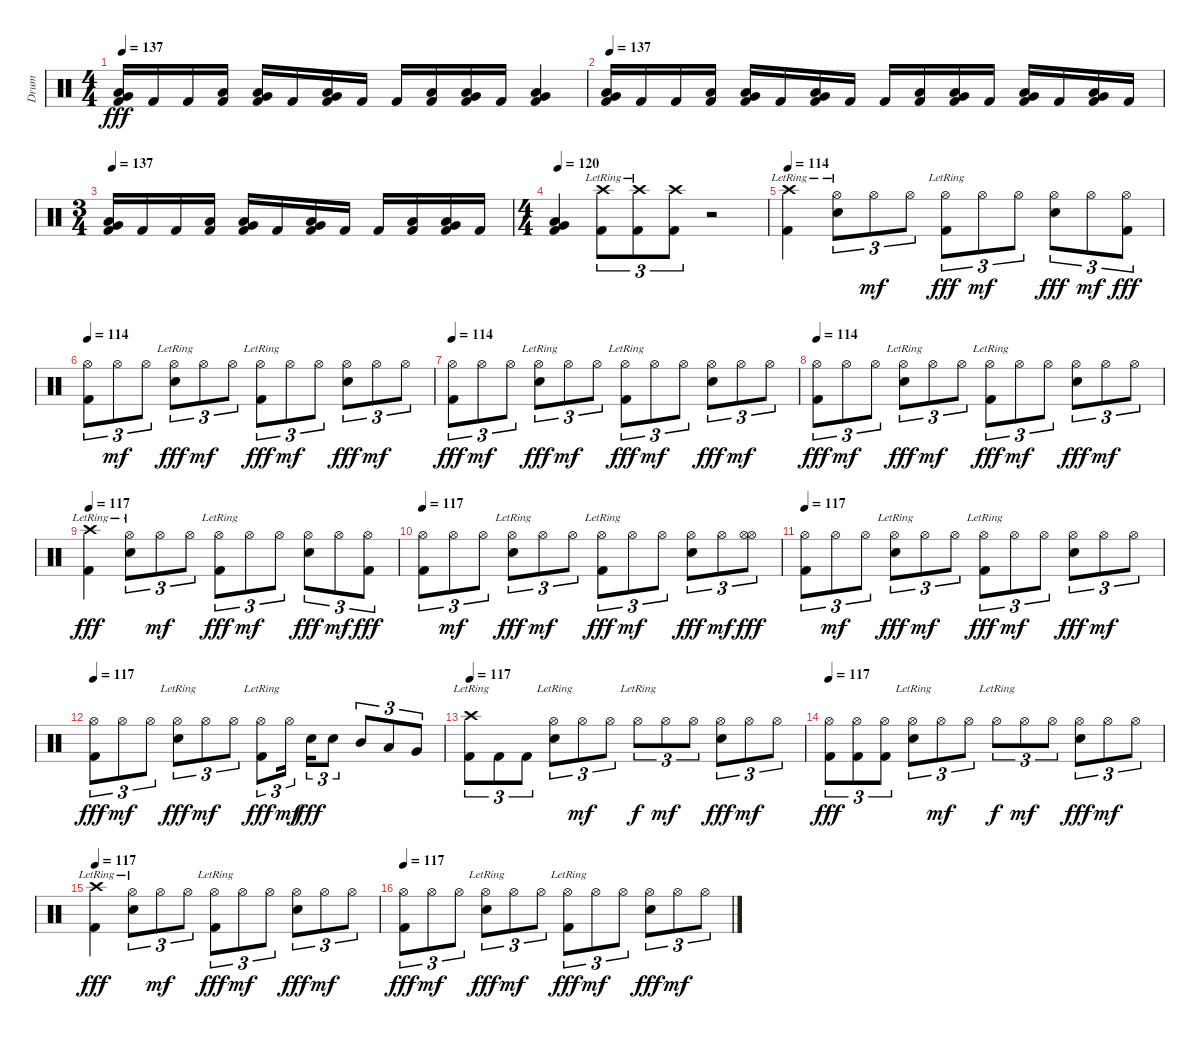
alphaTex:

\track ("Drum" "Drum") {instrument percussion}
\staff {score}
\articulation defaults
\ts (4 4)
\tempo 137
\clef neutral
\ks c
("Very Low Tom (hit)" "Low Tom (hit)" "Kick (hit) 2").16{dy fff} "Kick (hit) 2".16 "Kick (hit) 2".16 ("Low Tom (hit)" "Kick (hit) 2").16 ("Very Low Tom (hit)" "Low Tom (hit)" "Kick (hit) 2").16 "Kick (hit) 2".16 ("Very Low Tom (hit)" "Low Tom (hit)" "Kick (hit) 2").16 "Kick (hit) 2".16 "Kick (hit) 2".16 ("Low Tom (hit)" "Kick (hit) 2").16 ("Very Low Tom (hit)" "Low Tom (hit)" "Kick (hit) 2").16 "Kick (hit) 2".16 ("Very Low Tom (hit)" "Low Tom (hit)" "Kick (hit) 2").4 |
\tempo 137
("Very Low Tom (hit)" "Low Tom (hit)" "Kick (hit) 2").16 "Kick (hit) 2".16 "Kick (hit) 2".16 ("Low Tom (hit)" "Kick (hit) 2").16 ("Very Low Tom (hit)" "Low Tom (hit)" "Kick (hit) 2").16 "Kick (hit) 2".16 ("Very Low Tom (hit)" "Low Tom (hit)" "Kick (hit) 2").16 "Kick (hit) 2".16 "Kick (hit) 2".16 ("Low Tom (hit)" "Kick (hit) 2").16 ("Very Low Tom (hit)" "Low Tom (hit)" "Kick (hit) 2").16 "Kick (hit) 2".16 ("Very Low Tom (hit)" "Low Tom (hit)" "Kick (hit) 2").16 "Kick (hit) 2".16 ("Very Low Tom (hit)" "Low Tom (hit)" "Kick (hit) 2").16 "Kick (hit) 2".16 |
\ts (3 4)
\tempo 137
("Very Low Tom (hit)" "Low Tom (hit)" "Kick (hit) 2").16 "Kick (hit) 2".16 "Kick (hit) 2".16 ("Low Tom (hit)" "Kick (hit) 2").16 ("Very Low Tom (hit)" "Low Tom (hit)" "Kick (hit) 2").16 "Kick (hit) 2".16 ("Very Low Tom (hit)" "Low Tom (hit)" "Kick (hit) 2").16 "Kick (hit) 2".16 "Kick (hit) 2".16 ("Low Tom (hit)" "Kick (hit) 2").16 ("Very Low Tom (hit)" "Low Tom (hit)" "Kick (hit) 2").16 "Kick (hit) 2".16 |
\ts (4 4)
\tempo 120
("Very Low Tom (hit)" "Low Tom (hit)" "Kick (hit) 2").4 ("Crash high (hit)"{lr} "Kick (hit) 2").8{tu (3 2)} ("Crash high (hit)"{lr} "Kick (hit) 2").8{tu (3 2)} ("Crash high (hit)" "Kick (hit) 2").8{tu (3 2)} r.2 |
\tempo 114
("Crash high (hit)"{lr} "Kick (hit) 2").4 ("Hi-Hat (open)"{lr} "Electric Snare (hit)").8{tu (3 2)} "Hi-Hat (open)".8{tu (3 2) dy mf} "Hi-Hat (open)".8{tu (3 2)} ("Hi-Hat (open)"{lr} "Kick (hit) 2").8{tu (3 2) dy fff} "Hi-Hat (open)".8{tu (3 2) dy mf} "Hi-Hat (open)".8{tu (3 2)} ("Hi-Hat (open)" "Electric Snare (hit)").8{tu (3 2) dy fff} "Hi-Hat (open)".8{tu (3 2) dy mf} ("Hi-Hat (open)" "Kick (hit) 2").8{tu (3 2) dy fff} |
\tempo 114
("Hi-Hat (open)" "Kick (hit) 2").8{tu (3 2)} "Hi-Hat (open)".8{tu (3 2) dy mf} "Hi-Hat (open)".8{tu (3 2)} ("Hi-Hat (open)"{lr} "Electric Snare (hit)").8{tu (3 2) dy fff} "Hi-Hat (open)".8{tu (3 2) dy mf} "Hi-Hat (open)".8{tu (3 2)} ("Hi-Hat (open)"{lr} "Kick (hit) 2").8{tu (3 2) dy fff} "Hi-Hat (open)".8{tu (3 2) dy mf} "Hi-Hat (open)".8{tu (3 2)} ("Hi-Hat (open)" "Electric Snare (hit)").8{tu (3 2) dy fff} "Hi-Hat (open)".8{tu (3 2) dy mf} "Hi-Hat (open)".8{tu (3 2)} |
\tempo 114
("Hi-Hat (open)" "Kick (hit) 2").8{tu (3 2) dy fff} "Hi-Hat (open)".8{tu (3 2) dy mf} "Hi-Hat (open)".8{tu (3 2)} ("Hi-Hat (open)"{lr} "Electric Snare (hit)").8{tu (3 2) dy fff} "Hi-Hat (open)".8{tu (3 2) dy mf} "Hi-Hat (open)".8{tu (3 2)} ("Hi-Hat (open)"{lr} "Kick (hit) 2").8{tu (3 2) dy fff} "Hi-Hat (open)".8{tu (3 2) dy mf} "Hi-Hat (open)".8{tu (3 2)} ("Hi-Hat (open)" "Electric Snare (hit)").8{tu (3 2) dy fff} "Hi-Hat (open)".8{tu (3 2) dy mf} "Hi-Hat (open)".8{tu (3 2)} |
\tempo 114
("Hi-Hat (open)" "Kick (hit) 2").8{tu (3 2) dy fff} "Hi-Hat (open)".8{tu (3 2) dy mf} "Hi-Hat (open)".8{tu (3 2)} ("Hi-Hat (open)"{lr} "Electric Snare (hit)").8{tu (3 2) dy fff} "Hi-Hat (open)".8{tu (3 2) dy mf} "Hi-Hat (open)".8{tu (3 2)} ("Hi-Hat (open)"{lr} "Kick (hit) 2").8{tu (3 2) dy fff} "Hi-Hat (open)".8{tu (3 2) dy mf} "Hi-Hat (open)".8{tu (3 2)} ("Hi-Hat (open)" "Electric Snare (hit)").8{tu (3 2) dy fff} "Hi-Hat (open)".8{tu (3 2) dy mf} "Hi-Hat (open)".8{tu (3 2)} |
\tempo 117
("Crash high (hit)"{lr} "Kick (hit) 2").4{dy fff} ("Hi-Hat (open)"{lr} "Electric Snare (hit)").8{tu (3 2)} "Hi-Hat (open)".8{tu (3 2) dy mf} "Hi-Hat (open)".8{tu (3 2)} ("Hi-Hat (open)"{lr} "Kick (hit) 2").8{tu (3 2) dy fff} "Hi-Hat (open)".8{tu (3 2) dy mf} "Hi-Hat (open)".8{tu (3 2)} ("Hi-Hat (open)" "Electric Snare (hit)").8{tu (3 2) dy fff} "Hi-Hat (open)".8{tu (3 2) dy mf} ("Hi-Hat (open)" "Kick (hit) 2").8{tu (3 2) dy fff} |
\tempo 117
("Hi-Hat (open)" "Kick (hit) 2").8{tu (3 2)} "Hi-Hat (open)".8{tu (3 2) dy mf} "Hi-Hat (open)".8{tu (3 2)} ("Hi-Hat (open)"{lr} "Electric Snare (hit)").8{tu (3 2) dy fff} "Hi-Hat (open)".8{tu (3 2) dy mf} "Hi-Hat (open)".8{tu (3 2)} ("Hi-Hat (open)"{lr} "Kick (hit) 2").8{tu (3 2) dy fff} "Hi-Hat (open)".8{tu (3 2) dy mf} "Hi-Hat (open)".8{tu (3 2)} ("Hi-Hat (open)" "Electric Snare (hit)").8{tu (3 2) dy fff} "Hi-Hat (open)".8{tu (3 2) dy mf} ("Hi-Hat (open)" "Hi-Hat (open)").8{tu (3 2) dy fff} |
\tempo 117
("Hi-Hat (open)" "Kick (hit) 2").8{tu (3 2)} "Hi-Hat (open)".8{tu (3 2) dy mf} "Hi-Hat (open)".8{tu (3 2)} ("Hi-Hat (open)"{lr} "Electric Snare (hit)").8{tu (3 2) dy fff} "Hi-Hat (open)".8{tu (3 2) dy mf} "Hi-Hat (open)".8{tu (3 2)} ("Hi-Hat (open)"{lr} "Kick (hit) 2").8{tu (3 2) dy fff} "Hi-Hat (open)".8{tu (3 2) dy mf} "Hi-Hat (open)".8{tu (3 2)} ("Hi-Hat (open)" "Electric Snare (hit)").8{tu (3 2) dy fff} "Hi-Hat (open)".8{tu (3 2) dy mf} "Hi-Hat (open)".8{tu (3 2)} |
\tempo 117
("Hi-Hat (open)" "Kick (hit) 2").8{tu (3 2) dy fff} "Hi-Hat (open)".8{tu (3 2) dy mf} "Hi-Hat (open)".8{tu (3 2)} ("Hi-Hat (open)"{lr} "Electric Snare (hit)").8{tu (3 2) dy fff} "Hi-Hat (open)".8{tu (3 2) dy mf} "Hi-Hat (open)".8{tu (3 2)} ("Hi-Hat (open)"{lr} "Kick (hit) 2").8{tu (3 2) dy fff} "Hi-Hat (open)".16{tu (3 2) dy mf beam splitsecondary} "Electric Snare (hit)".16{tu (3 2) dy fff} "Electric Snare (hit)".8{tu (3 2)} "Mid Tom (hit)".8{tu (3 2)} "Low Tom (hit)".8{tu (3 2)} "Very Low Tom (hit)".8{tu (3 2)} |
\tempo 117
("Crash high (hit)"{lr} "Kick (hit) 2").8{tu (3 2)} "Kick (hit) 2".8{tu (3 2)} "Kick (hit) 2".8{tu (3 2)} ("Hi-Hat (open)"{lr} "Electric Snare (hit)").8{tu (3 2)} "Hi-Hat (open)".8{tu (3 2) dy mf} "Hi-Hat (open)".8{tu (3 2)} "Hi-Hat (open)"{lr}.8{tu (3 2) dy f} "Hi-Hat (open)".8{tu (3 2) dy mf} "Hi-Hat (open)".8{tu (3 2)} ("Hi-Hat (open)" "Electric Snare (hit)").8{tu (3 2) dy fff} "Hi-Hat (open)".8{tu (3 2) dy mf} "Hi-Hat (open)".8{tu (3 2)} |
\tempo 117
("Hi-Hat (open)" "Kick (hit) 2").8{tu (3 2) dy fff} ("Hi-Hat (open)" "Kick (hit) 2").8{tu (3 2)} ("Hi-Hat (open)" "Kick (hit) 2").8{tu (3 2)} ("Hi-Hat (open)"{lr} "Electric Snare (hit)").8{tu (3 2)} "Hi-Hat (open)".8{tu (3 2) dy mf} "Hi-Hat (open)".8{tu (3 2)} "Hi-Hat (open)"{lr}.8{tu (3 2) dy f} "Hi-Hat (open)".8{tu (3 2) dy mf} "Hi-Hat (open)".8{tu (3 2)} ("Hi-Hat (open)" "Electric Snare (hit)").8{tu (3 2) dy fff} "Hi-Hat (open)".8{tu (3 2) dy mf} "Hi-Hat (open)".8{tu (3 2)} |
\tempo 117
("Crash high (hit)"{lr} "Kick (hit) 2").4{dy fff} ("Hi-Hat (open)"{lr} "Electric Snare (hit)").8{tu (3 2)} "Hi-Hat (open)".8{tu (3 2) dy mf} "Hi-Hat (open)".8{tu (3 2)} ("Hi-Hat (open)"{lr} "Kick (hit) 2").8{tu (3 2) dy fff} "Hi-Hat (open)".8{tu (3 2) dy mf} "Hi-Hat (open)".8{tu (3 2)} ("Hi-Hat (open)" "Electric Snare (hit)").8{tu (3 2) dy fff} "Hi-Hat (open)".8{tu (3 2) dy mf} "Hi-Hat (open)".8{tu (3 2)} |
\tempo 117
("Hi-Hat (open)" "Kick (hit) 2").8{tu (3 2) dy fff} "Hi-Hat (open)".8{tu (3 2) dy mf} "Hi-Hat (open)".8{tu (3 2)} ("Hi-Hat (open)"{lr} "Electric Snare (hit)").8{tu (3 2) dy fff} "Hi-Hat (open)".8{tu (3 2) dy mf} "Hi-Hat (open)".8{tu (3 2)} ("Hi-Hat (open)"{lr} "Kick (hit) 2").8{tu (3 2) dy fff} "Hi-Hat (open)".8{tu (3 2) dy mf} "Hi-Hat (open)".8{tu (3 2)} ("Hi-Hat (open)" "Electric Snare (hit)").8{tu (3 2) dy fff} "Hi-Hat (open)".8{tu (3 2) dy mf} "Hi-Hat (open)".8{tu (3 2)}
